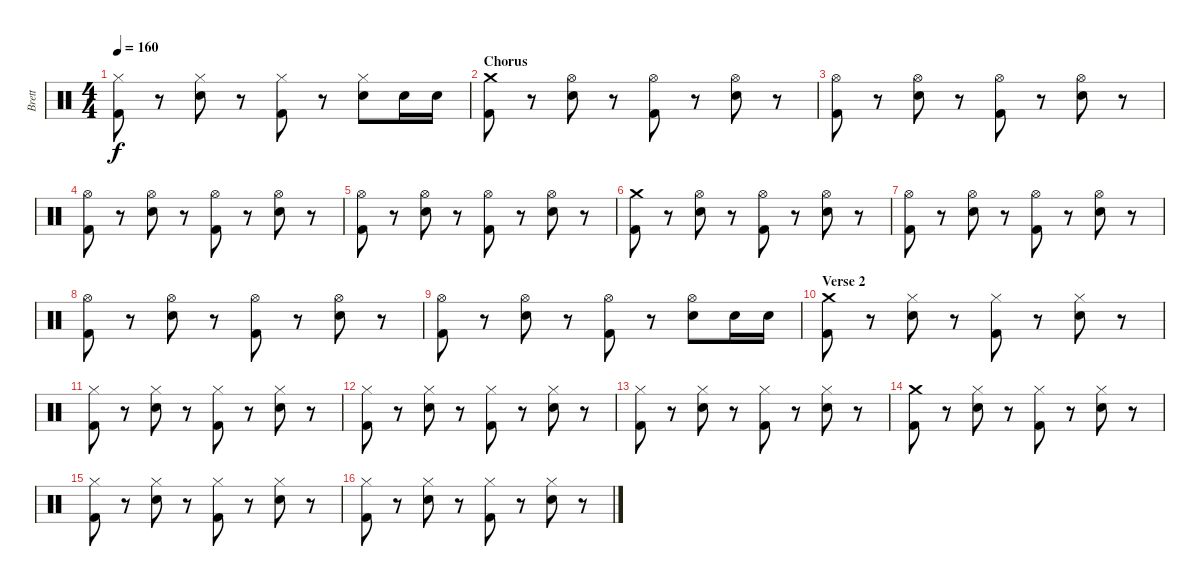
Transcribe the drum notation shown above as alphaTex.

\track ("Brett" "Brett") {instrument percussion}
\staff {score}
\articulation defaults
\ts (4 4)
\tempo 160
\clef neutral
\ks c
("Hi-Hat (closed)" "Kick (hit) 2").8{dy f} r.8 ("Hi-Hat (closed)" "Snare (hit) 2").8 r.8 ("Hi-Hat (closed)" "Kick (hit) 2").8 r.8 ("Hi-Hat (closed)" "Snare (hit) 2").8 "Snare (hit) 2".16 "Snare (hit) 2".16 |
\section ("" "Chorus")
("Crash medium (hit)" "Kick (hit) 2").8 r.8 ("Hi-Hat (open)" "Snare (hit) 2").8 r.8 ("Hi-Hat (open)" "Kick (hit) 2").8 r.8 ("Hi-Hat (open)" "Snare (hit) 2").8 r.8 |
("Hi-Hat (open)" "Kick (hit) 2").8 r.8 ("Hi-Hat (open)" "Snare (hit) 2").8 r.8 ("Hi-Hat (open)" "Kick (hit) 2").8 r.8 ("Hi-Hat (open)" "Snare (hit) 2").8 r.8 |
("Hi-Hat (open)" "Kick (hit) 2").8 r.8 ("Hi-Hat (open)" "Snare (hit) 2").8 r.8 ("Hi-Hat (open)" "Kick (hit) 2").8 r.8 ("Hi-Hat (open)" "Snare (hit) 2").8 r.8 |
("Hi-Hat (open)" "Kick (hit) 2").8 r.8 ("Hi-Hat (open)" "Snare (hit) 2").8 r.8 ("Hi-Hat (open)" "Kick (hit) 2").8 r.8 ("Hi-Hat (open)" "Snare (hit) 2").8 r.8 |
("Crash medium (hit)" "Kick (hit) 2").8 r.8 ("Hi-Hat (open)" "Snare (hit) 2").8 r.8 ("Hi-Hat (open)" "Kick (hit) 2").8 r.8 ("Hi-Hat (open)" "Snare (hit) 2").8 r.8 |
("Hi-Hat (open)" "Kick (hit) 2").8 r.8 ("Hi-Hat (open)" "Snare (hit) 2").8 r.8 ("Hi-Hat (open)" "Kick (hit) 2").8 r.8 ("Hi-Hat (open)" "Snare (hit) 2").8 r.8 |
("Hi-Hat (open)" "Kick (hit) 2").8 r.8 ("Hi-Hat (open)" "Snare (hit) 2").8 r.8 ("Hi-Hat (open)" "Kick (hit) 2").8 r.8 ("Hi-Hat (open)" "Snare (hit) 2").8 r.8 |
("Hi-Hat (open)" "Kick (hit) 2").8 r.8 ("Hi-Hat (open)" "Snare (hit) 2").8 r.8 ("Hi-Hat (open)" "Kick (hit) 2").8 r.8 ("Hi-Hat (open)" "Snare (hit) 2").8 "Snare (hit) 2".16 "Snare (hit) 2".16 |
\section ("" "Verse 2")
("Crash medium (hit)" "Kick (hit) 2").8 r.8 ("Hi-Hat (closed)" "Snare (hit) 2").8 r.8 ("Hi-Hat (closed)" "Kick (hit) 2").8 r.8 ("Hi-Hat (closed)" "Snare (hit) 2").8 r.8 |
("Hi-Hat (closed)" "Kick (hit) 2").8 r.8 ("Hi-Hat (closed)" "Snare (hit) 2").8 r.8 ("Hi-Hat (closed)" "Kick (hit) 2").8 r.8 ("Hi-Hat (closed)" "Snare (hit) 2").8 r.8 |
("Hi-Hat (closed)" "Kick (hit) 2").8 r.8 ("Hi-Hat (closed)" "Snare (hit) 2").8 r.8 ("Hi-Hat (closed)" "Kick (hit) 2").8 r.8 ("Hi-Hat (closed)" "Snare (hit) 2").8 r.8 |
("Hi-Hat (closed)" "Kick (hit) 2").8 r.8 ("Hi-Hat (closed)" "Snare (hit) 2").8 r.8 ("Hi-Hat (closed)" "Kick (hit) 2").8 r.8 ("Hi-Hat (closed)" "Snare (hit) 2").8 r.8 |
("Crash medium (hit)" "Kick (hit) 2").8 r.8 ("Hi-Hat (closed)" "Snare (hit) 2").8 r.8 ("Hi-Hat (closed)" "Kick (hit) 2").8 r.8 ("Hi-Hat (closed)" "Snare (hit) 2").8 r.8 |
("Hi-Hat (closed)" "Kick (hit) 2").8 r.8 ("Hi-Hat (closed)" "Snare (hit) 2").8 r.8 ("Hi-Hat (closed)" "Kick (hit) 2").8 r.8 ("Hi-Hat (closed)" "Snare (hit) 2").8 r.8 |
("Hi-Hat (closed)" "Kick (hit) 2").8 r.8 ("Hi-Hat (closed)" "Snare (hit) 2").8 r.8 ("Hi-Hat (closed)" "Kick (hit) 2").8 r.8 ("Hi-Hat (closed)" "Snare (hit) 2").8 r.8
